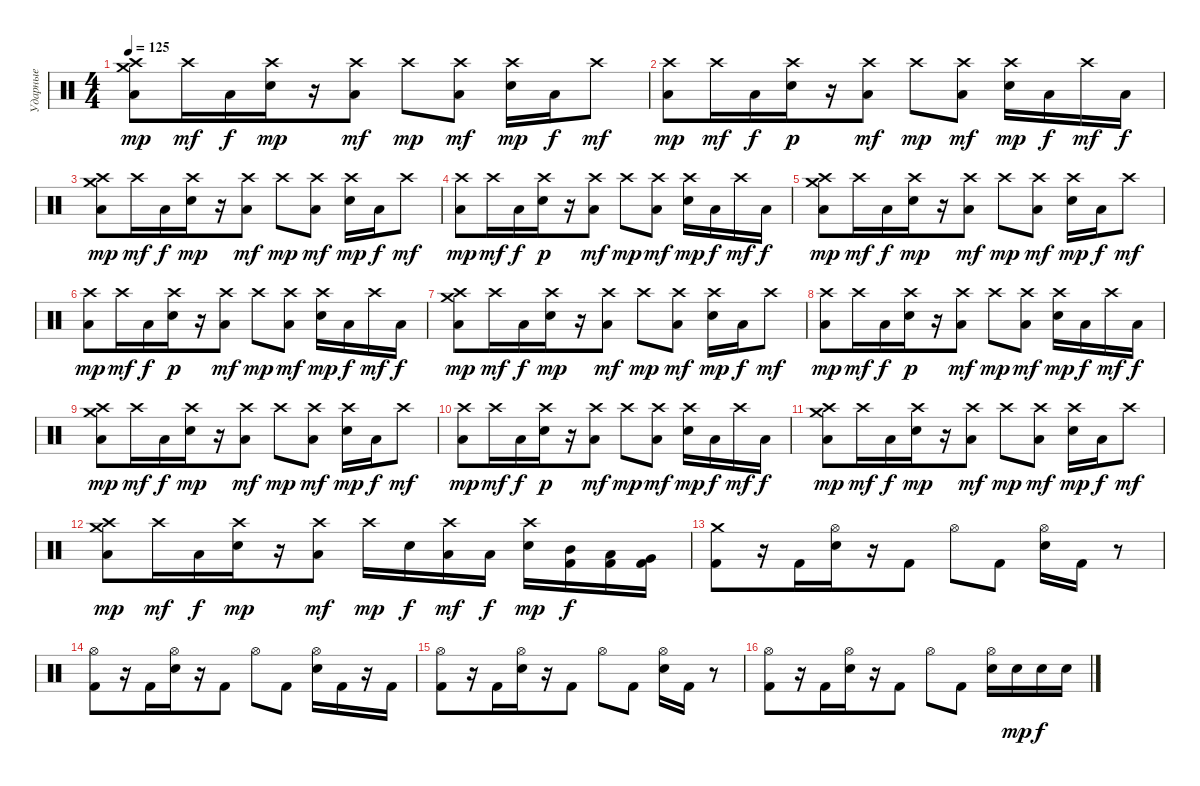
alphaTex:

\track ("Ударные" "Ударные") {instrument percussion}
\staff {score}
\articulation defaults
\ts (4 4)
\tempo 125
\clef neutral
\ks c
("Crash medium (hit)" "Crash high (hit)" "Low Floor Tom (hit)").8{dy mp} "Crash high (hit)".16{dy mf} "Low Floor Tom (hit)".16{dy f beam merge} ("Crash high (hit)" "Electric Snare (hit)").16{dy mp} r.16 ("Crash high (hit)" "Low Floor Tom (hit)").8{dy mf} "Crash high (hit)".8{dy mp} ("Crash high (hit)" "Low Floor Tom (hit)").8{dy mf} ("Crash high (hit)" "Electric Snare (hit)").16{dy mp} "Low Floor Tom (hit)".16{dy f} "Crash high (hit)".8{dy mf} |
("Crash high (hit)" "Low Floor Tom (hit)").8{dy mp} "Crash high (hit)".16{dy mf} "Low Floor Tom (hit)".16{dy f beam merge} ("Crash high (hit)" "Electric Snare (hit)").16{dy p} r.16 ("Crash high (hit)" "Low Floor Tom (hit)").8{dy mf} "Crash high (hit)".8{dy mp} ("Crash high (hit)" "Low Floor Tom (hit)").8{dy mf} ("Crash high (hit)" "Electric Snare (hit)").16{dy mp} "Low Floor Tom (hit)".16{dy f} "Crash high (hit)".16{dy mf} "Low Floor Tom (hit)".16{dy f} |
("Crash medium (hit)" "Crash high (hit)" "Low Floor Tom (hit)").8{dy mp} "Crash high (hit)".16{dy mf} "Low Floor Tom (hit)".16{dy f beam merge} ("Crash high (hit)" "Electric Snare (hit)").16{dy mp} r.16 ("Crash high (hit)" "Low Floor Tom (hit)").8{dy mf} "Crash high (hit)".8{dy mp} ("Crash high (hit)" "Low Floor Tom (hit)").8{dy mf} ("Crash high (hit)" "Electric Snare (hit)").16{dy mp} "Low Floor Tom (hit)".16{dy f} "Crash high (hit)".8{dy mf} |
("Crash high (hit)" "Low Floor Tom (hit)").8{dy mp} "Crash high (hit)".16{dy mf} "Low Floor Tom (hit)".16{dy f beam merge} ("Crash high (hit)" "Electric Snare (hit)").16{dy p} r.16 ("Crash high (hit)" "Low Floor Tom (hit)").8{dy mf} "Crash high (hit)".8{dy mp} ("Crash high (hit)" "Low Floor Tom (hit)").8{dy mf} ("Crash high (hit)" "Electric Snare (hit)").16{dy mp} "Low Floor Tom (hit)".16{dy f} "Crash high (hit)".16{dy mf} "Low Floor Tom (hit)".16{dy f} |
("Crash medium (hit)" "Crash high (hit)" "Low Floor Tom (hit)").8{dy mp} "Crash high (hit)".16{dy mf} "Low Floor Tom (hit)".16{dy f beam merge} ("Crash high (hit)" "Electric Snare (hit)").16{dy mp} r.16 ("Crash high (hit)" "Low Floor Tom (hit)").8{dy mf} "Crash high (hit)".8{dy mp} ("Crash high (hit)" "Low Floor Tom (hit)").8{dy mf} ("Crash high (hit)" "Electric Snare (hit)").16{dy mp} "Low Floor Tom (hit)".16{dy f} "Crash high (hit)".8{dy mf} |
("Crash high (hit)" "Low Floor Tom (hit)").8{dy mp} "Crash high (hit)".16{dy mf} "Low Floor Tom (hit)".16{dy f beam merge} ("Crash high (hit)" "Electric Snare (hit)").16{dy p} r.16 ("Crash high (hit)" "Low Floor Tom (hit)").8{dy mf} "Crash high (hit)".8{dy mp} ("Crash high (hit)" "Low Floor Tom (hit)").8{dy mf} ("Crash high (hit)" "Electric Snare (hit)").16{dy mp} "Low Floor Tom (hit)".16{dy f} "Crash high (hit)".16{dy mf} "Low Floor Tom (hit)".16{dy f} |
("Crash medium (hit)" "Crash high (hit)" "Low Floor Tom (hit)").8{dy mp} "Crash high (hit)".16{dy mf} "Low Floor Tom (hit)".16{dy f beam merge} ("Crash high (hit)" "Electric Snare (hit)").16{dy mp} r.16 ("Crash high (hit)" "Low Floor Tom (hit)").8{dy mf} "Crash high (hit)".8{dy mp} ("Crash high (hit)" "Low Floor Tom (hit)").8{dy mf} ("Crash high (hit)" "Electric Snare (hit)").16{dy mp} "Low Floor Tom (hit)".16{dy f} "Crash high (hit)".8{dy mf} |
("Crash high (hit)" "Low Floor Tom (hit)").8{dy mp} "Crash high (hit)".16{dy mf} "Low Floor Tom (hit)".16{dy f beam merge} ("Crash high (hit)" "Electric Snare (hit)").16{dy p} r.16 ("Crash high (hit)" "Low Floor Tom (hit)").8{dy mf} "Crash high (hit)".8{dy mp} ("Crash high (hit)" "Low Floor Tom (hit)").8{dy mf} ("Crash high (hit)" "Electric Snare (hit)").16{dy mp} "Low Floor Tom (hit)".16{dy f} "Crash high (hit)".16{dy mf} "Low Floor Tom (hit)".16{dy f} |
("Crash medium (hit)" "Crash high (hit)" "Low Floor Tom (hit)").8{dy mp} "Crash high (hit)".16{dy mf} "Low Floor Tom (hit)".16{dy f beam merge} ("Crash high (hit)" "Electric Snare (hit)").16{dy mp} r.16 ("Crash high (hit)" "Low Floor Tom (hit)").8{dy mf} "Crash high (hit)".8{dy mp} ("Crash high (hit)" "Low Floor Tom (hit)").8{dy mf} ("Crash high (hit)" "Electric Snare (hit)").16{dy mp} "Low Floor Tom (hit)".16{dy f} "Crash high (hit)".8{dy mf} |
("Crash high (hit)" "Low Floor Tom (hit)").8{dy mp} "Crash high (hit)".16{dy mf} "Low Floor Tom (hit)".16{dy f beam merge} ("Crash high (hit)" "Electric Snare (hit)").16{dy p} r.16 ("Crash high (hit)" "Low Floor Tom (hit)").8{dy mf} "Crash high (hit)".8{dy mp} ("Crash high (hit)" "Low Floor Tom (hit)").8{dy mf} ("Crash high (hit)" "Electric Snare (hit)").16{dy mp} "Low Floor Tom (hit)".16{dy f} "Crash high (hit)".16{dy mf} "Low Floor Tom (hit)".16{dy f} |
("Crash medium (hit)" "Crash high (hit)" "Low Floor Tom (hit)").8{dy mp} "Crash high (hit)".16{dy mf} "Low Floor Tom (hit)".16{dy f beam merge} ("Crash high (hit)" "Electric Snare (hit)").16{dy mp} r.16 ("Crash high (hit)" "Low Floor Tom (hit)").8{dy mf} "Crash high (hit)".8{dy mp} ("Crash high (hit)" "Low Floor Tom (hit)").8{dy mf} ("Crash high (hit)" "Electric Snare (hit)").16{dy mp} "Low Floor Tom (hit)".16{dy f} "Crash high (hit)".8{dy mf} |
("Crash medium (hit)" "Crash high (hit)" "Low Floor Tom (hit)").8{dy mp} "Crash high (hit)".16{dy mf} "Low Floor Tom (hit)".16{dy f beam merge} ("Crash high (hit)" "Electric Snare (hit)").16{dy mp} r.16 ("Crash high (hit)" "Low Floor Tom (hit)").8{dy mf} "Crash high (hit)".16{dy mp} "Electric Snare (hit)".16{dy f} ("Crash high (hit)" "Low Floor Tom (hit)").16{dy mf} "Low Floor Tom (hit)".16{dy f} ("Crash high (hit)" "Electric Snare (hit)").16{dy mp} ("Mid Tom (hit)" "Kick (hit) 2").16{dy f} ("Low Tom (hit)" "Kick (hit) 2").16 ("Very Low Tom (hit)" "Kick (hit) 2").16 |
("Crash medium (hit)" "Kick (hit) 2").8 r.16 "Kick (hit) 2".16{beam merge} ("Hi-Hat (open)" "Electric Snare (hit)").16 r.16 "Kick (hit) 2".8 "Hi-Hat (open)".8 "Kick (hit) 2".8 ("Hi-Hat (open)" "Electric Snare (hit)").16 "Kick (hit) 2".16 r.8 |
("Hi-Hat (open)" "Kick (hit) 2").8 r.16 "Kick (hit) 2".16{beam merge} ("Hi-Hat (open)" "Electric Snare (hit)").16 r.16 "Kick (hit) 2".8 "Hi-Hat (open)".8 "Kick (hit) 2".8 ("Hi-Hat (open)" "Electric Snare (hit)").16 "Kick (hit) 2".16 r.16 "Kick (hit) 2".16 |
("Hi-Hat (open)" "Kick (hit) 2").8 r.16 "Kick (hit) 2".16{beam merge} ("Hi-Hat (open)" "Electric Snare (hit)").16 r.16 "Kick (hit) 2".8 "Hi-Hat (open)".8 "Kick (hit) 2".8 ("Hi-Hat (open)" "Electric Snare (hit)").16 "Kick (hit) 2".16 r.8 |
("Hi-Hat (open)" "Kick (hit) 2").8 r.16 "Kick (hit) 2".16{beam merge} ("Hi-Hat (open)" "Electric Snare (hit)").16 r.16 "Kick (hit) 2".8 "Hi-Hat (open)".8 "Kick (hit) 2".8 ("Hi-Hat (open)" "Electric Snare (hit)").16 "Electric Snare (hit)".16{dy mp} "Electric Snare (hit)".16{dy f} "Electric Snare (hit)".16
